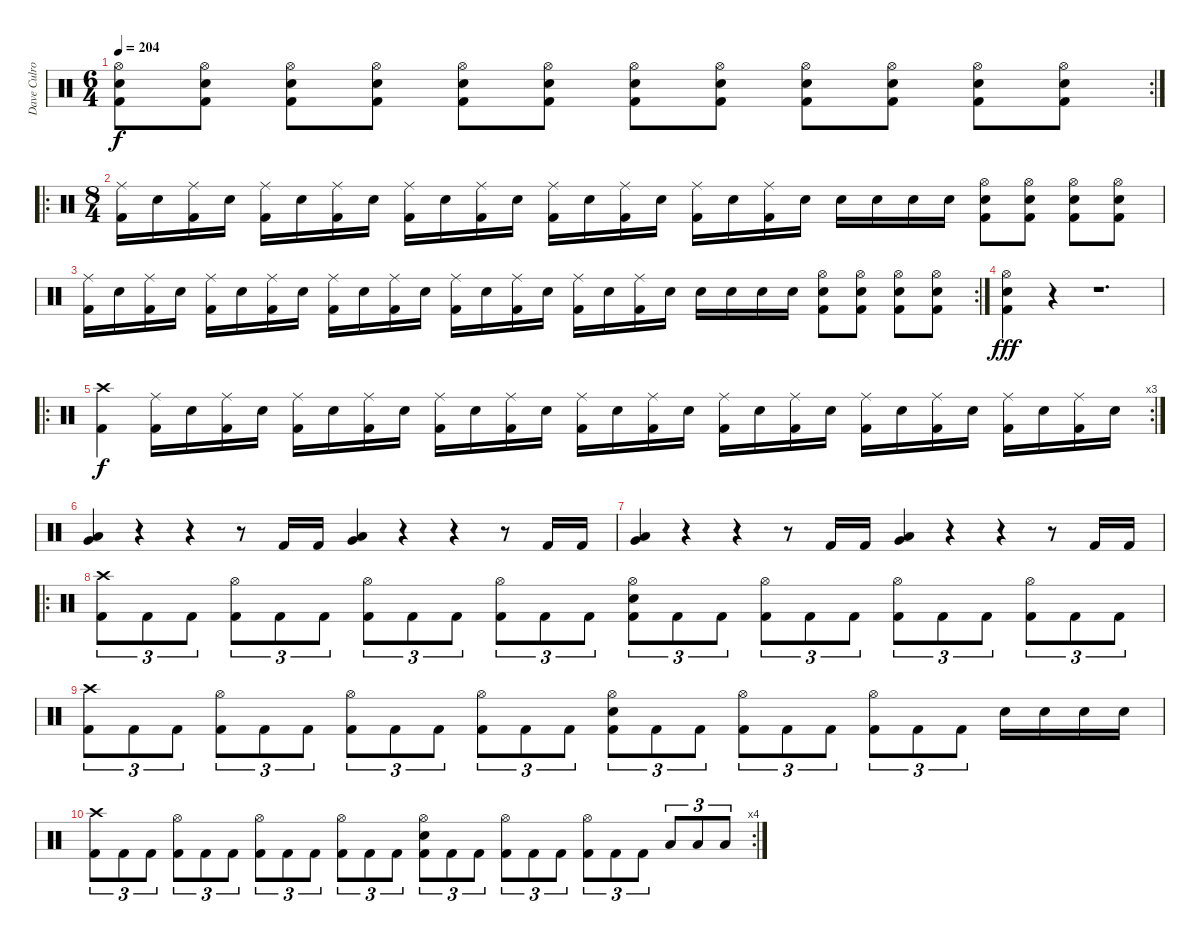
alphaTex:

\track ("Dave Culross" "Dave Culro") {instrument percussion}
\staff {score}
\articulation defaults
\rc 2
\ts (6 4)
\tempo 204
\clef neutral
\ks c
("Hi-Hat (open)" "Electric Snare (hit)" "Kick (hit) 2").8{dy f} ("Hi-Hat (open)" "Electric Snare (hit)" "Kick (hit) 2").8 ("Hi-Hat (open)" "Electric Snare (hit)" "Kick (hit) 2").8 ("Hi-Hat (open)" "Electric Snare (hit)" "Kick (hit) 2").8 ("Hi-Hat (open)" "Electric Snare (hit)" "Kick (hit) 2").8 ("Hi-Hat (open)" "Electric Snare (hit)" "Kick (hit) 2").8 ("Hi-Hat (open)" "Electric Snare (hit)" "Kick (hit) 2").8 ("Hi-Hat (open)" "Electric Snare (hit)" "Kick (hit) 2").8 ("Hi-Hat (open)" "Electric Snare (hit)" "Kick (hit) 2").8 ("Hi-Hat (open)" "Electric Snare (hit)" "Kick (hit) 2").8 ("Hi-Hat (open)" "Electric Snare (hit)" "Kick (hit) 2").8 ("Hi-Hat (open)" "Electric Snare (hit)" "Kick (hit) 2").8 |
\ro
\ts (8 4)
("Ride (middle)" "Kick (hit) 2").16 "Electric Snare (hit)".16 ("Ride (middle)" "Kick (hit) 2").16 "Electric Snare (hit)".16 ("Ride (middle)" "Kick (hit) 2").16 "Electric Snare (hit)".16 ("Ride (middle)" "Kick (hit) 2").16 "Electric Snare (hit)".16 ("Ride (middle)" "Kick (hit) 2").16 "Electric Snare (hit)".16 ("Ride (middle)" "Kick (hit) 2").16 "Electric Snare (hit)".16 ("Ride (middle)" "Kick (hit) 2").16 "Electric Snare (hit)".16 ("Ride (middle)" "Kick (hit) 2").16 "Electric Snare (hit)".16 ("Ride (middle)" "Kick (hit) 2").16 "Electric Snare (hit)".16 ("Ride (middle)" "Kick (hit) 2").16 "Electric Snare (hit)".16 "Electric Snare (hit)".16 "Electric Snare (hit)".16 "Electric Snare (hit)".16 "Electric Snare (hit)".16 ("Hi-Hat (open)" "Electric Snare (hit)" "Kick (hit) 2").8 ("Hi-Hat (open)" "Electric Snare (hit)" "Kick (hit) 2").8 ("Hi-Hat (open)" "Electric Snare (hit)" "Kick (hit) 2").8 ("Hi-Hat (open)" "Electric Snare (hit)" "Kick (hit) 2").8 |
\rc 2
("Ride (middle)" "Kick (hit) 2").16 "Electric Snare (hit)".16 ("Ride (middle)" "Kick (hit) 2").16 "Electric Snare (hit)".16 ("Ride (middle)" "Kick (hit) 2").16 "Electric Snare (hit)".16 ("Ride (middle)" "Kick (hit) 2").16 "Electric Snare (hit)".16 ("Ride (middle)" "Kick (hit) 2").16 "Electric Snare (hit)".16 ("Ride (middle)" "Kick (hit) 2").16 "Electric Snare (hit)".16 ("Ride (middle)" "Kick (hit) 2").16 "Electric Snare (hit)".16 ("Ride (middle)" "Kick (hit) 2").16 "Electric Snare (hit)".16 ("Ride (middle)" "Kick (hit) 2").16 "Electric Snare (hit)".16 ("Ride (middle)" "Kick (hit) 2").16 "Electric Snare (hit)".16 "Electric Snare (hit)".16 "Electric Snare (hit)".16 "Electric Snare (hit)".16 "Electric Snare (hit)".16 ("Hi-Hat (open)" "Electric Snare (hit)" "Kick (hit) 2").8 ("Hi-Hat (open)" "Electric Snare (hit)" "Kick (hit) 2").8 ("Hi-Hat (open)" "Electric Snare (hit)" "Kick (hit) 2").8 ("Hi-Hat (open)" "Electric Snare (hit)" "Kick (hit) 2").8 |
("Hi-Hat (open)" "Electric Snare (hit)" "Kick (hit) 2").4{dy fff} r.4 r.1{d} |
\ro
\rc 3
("Crash high (hit)" "Kick (hit) 2").4{dy f} ("Ride (middle)" "Kick (hit) 2").16 "Electric Snare (hit)".16 ("Ride (middle)" "Kick (hit) 2").16 "Electric Snare (hit)".16 ("Ride (middle)" "Kick (hit) 2").16 "Electric Snare (hit)".16 ("Ride (middle)" "Kick (hit) 2").16 "Electric Snare (hit)".16 ("Ride (middle)" "Kick (hit) 2").16 "Electric Snare (hit)".16 ("Ride (middle)" "Kick (hit) 2").16 "Electric Snare (hit)".16 ("Ride (middle)" "Kick (hit) 2").16 "Electric Snare (hit)".16 ("Ride (middle)" "Kick (hit) 2").16 "Electric Snare (hit)".16 ("Ride (middle)" "Kick (hit) 2").16 "Electric Snare (hit)".16 ("Ride (middle)" "Kick (hit) 2").16 "Electric Snare (hit)".16 ("Ride (middle)" "Kick (hit) 2").16 "Electric Snare (hit)".16 ("Ride (middle)" "Kick (hit) 2").16 "Electric Snare (hit)".16 ("Ride (middle)" "Kick (hit) 2").16 "Electric Snare (hit)".16 ("Ride (middle)" "Kick (hit) 2").16 "Electric Snare (hit)".16 |
("Low Tom (hit)" "Very Low Tom (hit)").4 r.4 r.4 r.8 "Kick (hit) 2".16 "Kick (hit) 2".16 ("Low Tom (hit)" "Very Low Tom (hit)").4 r.4 r.4 r.8 "Kick (hit) 2".16 "Kick (hit) 2".16 |
("Low Tom (hit)" "Very Low Tom (hit)").4 r.4 r.4 r.8 "Kick (hit) 2".16 "Kick (hit) 2".16 ("Low Tom (hit)" "Very Low Tom (hit)").4 r.4 r.4 r.8 "Kick (hit) 2".16 "Kick (hit) 2".16 |
\ro
("Crash high (hit)" "Kick (hit) 2").8{tu (3 2)} "Kick (hit) 2".8{tu (3 2)} "Kick (hit) 2".8{tu (3 2)} ("Hi-Hat (open)" "Kick (hit) 2").8{tu (3 2)} "Kick (hit) 2".8{tu (3 2)} "Kick (hit) 2".8{tu (3 2)} ("Hi-Hat (open)" "Kick (hit) 2").8{tu (3 2)} "Kick (hit) 2".8{tu (3 2)} "Kick (hit) 2".8{tu (3 2)} ("Hi-Hat (open)" "Kick (hit) 2").8{tu (3 2)} "Kick (hit) 2".8{tu (3 2)} "Kick (hit) 2".8{tu (3 2)} ("Hi-Hat (open)" "Electric Snare (hit)" "Kick (hit) 2").8{tu (3 2)} "Kick (hit) 2".8{tu (3 2)} "Kick (hit) 2".8{tu (3 2)} ("Hi-Hat (open)" "Kick (hit) 2").8{tu (3 2)} "Kick (hit) 2".8{tu (3 2)} "Kick (hit) 2".8{tu (3 2)} ("Hi-Hat (open)" "Kick (hit) 2").8{tu (3 2)} "Kick (hit) 2".8{tu (3 2)} "Kick (hit) 2".8{tu (3 2)} ("Hi-Hat (open)" "Kick (hit) 2").8{tu (3 2)} "Kick (hit) 2".8{tu (3 2)} "Kick (hit) 2".8{tu (3 2)} |
("Crash high (hit)" "Kick (hit) 2").8{tu (3 2)} "Kick (hit) 2".8{tu (3 2)} "Kick (hit) 2".8{tu (3 2)} ("Hi-Hat (open)" "Kick (hit) 2").8{tu (3 2)} "Kick (hit) 2".8{tu (3 2)} "Kick (hit) 2".8{tu (3 2)} ("Hi-Hat (open)" "Kick (hit) 2").8{tu (3 2)} "Kick (hit) 2".8{tu (3 2)} "Kick (hit) 2".8{tu (3 2)} ("Hi-Hat (open)" "Kick (hit) 2").8{tu (3 2)} "Kick (hit) 2".8{tu (3 2)} "Kick (hit) 2".8{tu (3 2)} ("Hi-Hat (open)" "Electric Snare (hit)" "Kick (hit) 2").8{tu (3 2)} "Kick (hit) 2".8{tu (3 2)} "Kick (hit) 2".8{tu (3 2)} ("Hi-Hat (open)" "Kick (hit) 2").8{tu (3 2)} "Kick (hit) 2".8{tu (3 2)} "Kick (hit) 2".8{tu (3 2)} ("Hi-Hat (open)" "Kick (hit) 2").8{tu (3 2)} "Kick (hit) 2".8{tu (3 2)} "Kick (hit) 2".8{tu (3 2)} "Electric Snare (hit)".16 "Electric Snare (hit)".16 "Electric Snare (hit)".16 "Electric Snare (hit)".16 |
\rc 4
("Crash high (hit)" "Kick (hit) 2").8{tu (3 2)} "Kick (hit) 2".8{tu (3 2)} "Kick (hit) 2".8{tu (3 2)} ("Hi-Hat (open)" "Kick (hit) 2").8{tu (3 2)} "Kick (hit) 2".8{tu (3 2)} "Kick (hit) 2".8{tu (3 2)} ("Hi-Hat (open)" "Kick (hit) 2").8{tu (3 2)} "Kick (hit) 2".8{tu (3 2)} "Kick (hit) 2".8{tu (3 2)} ("Hi-Hat (open)" "Kick (hit) 2").8{tu (3 2)} "Kick (hit) 2".8{tu (3 2)} "Kick (hit) 2".8{tu (3 2)} ("Hi-Hat (open)" "Electric Snare (hit)" "Kick (hit) 2").8{tu (3 2)} "Kick (hit) 2".8{tu (3 2)} "Kick (hit) 2".8{tu (3 2)} ("Hi-Hat (open)" "Kick (hit) 2").8{tu (3 2)} "Kick (hit) 2".8{tu (3 2)} "Kick (hit) 2".8{tu (3 2)} ("Hi-Hat (open)" "Kick (hit) 2").8{tu (3 2)} "Kick (hit) 2".8{tu (3 2)} "Kick (hit) 2".8{tu (3 2)} "Low Tom (hit)".8{tu (3 2)} "Low Tom (hit)".8{tu (3 2)} "Low Tom (hit)".8{tu (3 2)}
